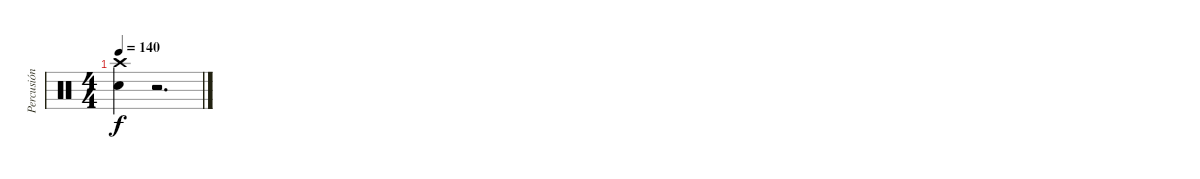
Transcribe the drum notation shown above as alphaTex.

\track ("Percusión" "Percusión") {instrument percussion}
\staff {score}
\articulation defaults
\ts (4 4)
\tempo 140
\clef neutral
\ks c
("Crash high (hit)" "Snare (hit) 2").4{dy f} r.2{d}
